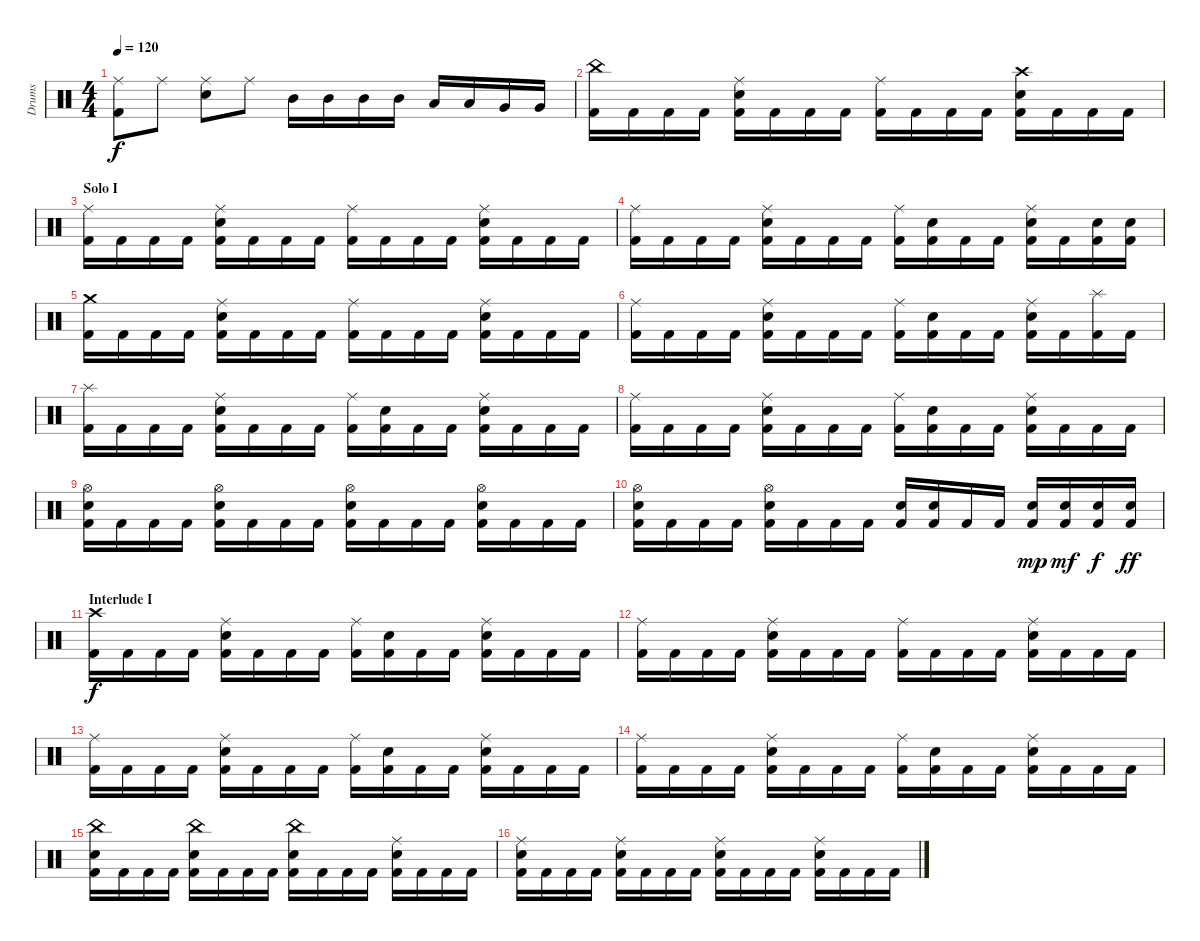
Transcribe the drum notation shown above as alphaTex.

\track ("Drums" "Drums") {instrument percussion}
\staff {score}
\articulation defaults
\ts (4 4)
\tempo 120
\clef neutral
\ks c
("Ride (middle)" "Kick (hit) 2").8{dy f} "Ride (middle)".8 ("Ride (middle)" "Snare (hit) 2").8 "Ride (middle)".8 "Mid Tom (hit)".16 "Mid Tom (hit)".16 "Mid Tom (hit)".16 "Mid Tom (hit)".16 "Low Tom (hit)".16 "Low Tom (hit)".16 "Very Low Tom (hit)".16 "Very Low Tom (hit)".16 |
("China (hit)" "Kick (hit) 2").16 "Kick (hit) 2".16 "Kick (hit) 2".16 "Kick (hit) 2".16 ("Ride (middle)" "Snare (hit) 2" "Kick (hit) 2").16 "Kick (hit) 2".16 "Kick (hit) 2".16 "Kick (hit) 2".16 ("Ride (middle)" "Kick (hit) 2").16 "Kick (hit) 2".16 "Kick (hit) 2".16 "Kick (hit) 2".16 ("Crash high (hit)" "Snare (hit) 2" "Kick (hit) 2").16 "Kick (hit) 2".16 "Kick (hit) 2".16 "Kick (hit) 2".16 |
\section ("" "Solo I")
("Ride (middle)" "Kick (hit) 2").16 "Kick (hit) 2".16 "Kick (hit) 2".16 "Kick (hit) 2".16 ("Ride (middle)" "Snare (hit) 2" "Kick (hit) 2").16 "Kick (hit) 2".16 "Kick (hit) 2".16 "Kick (hit) 2".16 ("Ride (middle)" "Kick (hit) 2").16 "Kick (hit) 2".16 "Kick (hit) 2".16 "Kick (hit) 2".16 ("Ride (middle)" "Snare (hit) 2" "Kick (hit) 2").16 "Kick (hit) 2".16 "Kick (hit) 2".16 "Kick (hit) 2".16 |
("Ride (middle)" "Kick (hit) 2").16 "Kick (hit) 2".16 "Kick (hit) 2".16 "Kick (hit) 2".16 ("Ride (middle)" "Snare (hit) 2" "Kick (hit) 2").16 "Kick (hit) 2".16 "Kick (hit) 2".16 "Kick (hit) 2".16 ("Ride (middle)" "Kick (hit) 2").16 ("Snare (hit) 2" "Kick (hit) 2").16 "Kick (hit) 2".16 "Kick (hit) 2".16 ("Ride (middle)" "Snare (hit) 2" "Kick (hit) 2").16 "Kick (hit) 2".16 ("Snare (hit) 2" "Kick (hit) 2").16 ("Snare (hit) 2" "Kick (hit) 2").16 |
("Crash medium (hit)" "Kick (hit) 2").16 "Kick (hit) 2".16 "Kick (hit) 2".16 "Kick (hit) 2".16 ("Ride (middle)" "Snare (hit) 2" "Kick (hit) 2").16 "Kick (hit) 2".16 "Kick (hit) 2".16 "Kick (hit) 2".16 ("Ride (middle)" "Kick (hit) 2").16 "Kick (hit) 2".16 "Kick (hit) 2".16 "Kick (hit) 2".16 ("Ride (middle)" "Snare (hit) 2" "Kick (hit) 2").16 "Kick (hit) 2".16 "Kick (hit) 2".16 "Kick (hit) 2".16 |
("Ride (middle)" "Kick (hit) 2").16 "Kick (hit) 2".16 "Kick (hit) 2".16 "Kick (hit) 2".16 ("Ride (middle)" "Snare (hit) 2" "Kick (hit) 2").16 "Kick (hit) 2".16 "Kick (hit) 2".16 "Kick (hit) 2".16 ("Ride (middle)" "Kick (hit) 2").16 ("Snare (hit) 2" "Kick (hit) 2").16 "Kick (hit) 2".16 "Kick (hit) 2".16 ("Ride (middle)" "Snare (hit) 2" "Kick (hit) 2").16 "Kick (hit) 2".16 ("Splash (hit)" "Kick (hit) 2").16 "Kick (hit) 2".16 |
("Splash (hit)" "Kick (hit) 2").16 "Kick (hit) 2".16 "Kick (hit) 2".16 "Kick (hit) 2".16 ("Ride (middle)" "Snare (hit) 2" "Kick (hit) 2").16 "Kick (hit) 2".16 "Kick (hit) 2".16 "Kick (hit) 2".16 ("Ride (middle)" "Kick (hit) 2").16 ("Snare (hit) 2" "Kick (hit) 2").16 "Kick (hit) 2".16 "Kick (hit) 2".16 ("Ride (middle)" "Snare (hit) 2" "Kick (hit) 2").16 "Kick (hit) 2".16 "Kick (hit) 2".16 "Kick (hit) 2".16 |
("Ride (middle)" "Kick (hit) 2").16 "Kick (hit) 2".16 "Kick (hit) 2".16 "Kick (hit) 2".16 ("Ride (middle)" "Snare (hit) 2" "Kick (hit) 2").16 "Kick (hit) 2".16 "Kick (hit) 2".16 "Kick (hit) 2".16 ("Ride (middle)" "Kick (hit) 2").16 ("Snare (hit) 2" "Kick (hit) 2").16 "Kick (hit) 2".16 "Kick (hit) 2".16 ("Ride (middle)" "Snare (hit) 2" "Kick (hit) 2").16 "Kick (hit) 2".16 "Kick (hit) 2".16 "Kick (hit) 2".16 |
("Hi-Hat (open)" "Snare (hit) 2" "Kick (hit) 2").16 "Kick (hit) 2".16 "Kick (hit) 2".16 "Kick (hit) 2".16 ("Hi-Hat (open)" "Snare (hit) 2" "Kick (hit) 2").16 "Kick (hit) 2".16 "Kick (hit) 2".16 "Kick (hit) 2".16 ("Hi-Hat (open)" "Snare (hit) 2" "Kick (hit) 2").16 "Kick (hit) 2".16 "Kick (hit) 2".16 "Kick (hit) 2".16 ("Hi-Hat (open)" "Snare (hit) 2" "Kick (hit) 2").16 "Kick (hit) 2".16 "Kick (hit) 2".16 "Kick (hit) 2".16 |
("Hi-Hat (open)" "Snare (hit) 2" "Kick (hit) 2").16 "Kick (hit) 2".16 "Kick (hit) 2".16 "Kick (hit) 2".16 ("Hi-Hat (open)" "Snare (hit) 2" "Kick (hit) 2").16 "Kick (hit) 2".16 "Kick (hit) 2".16 "Kick (hit) 2".16 ("Snare (hit) 2" "Kick (hit) 2").16 ("Snare (hit) 2" "Kick (hit) 2").16 "Kick (hit) 2".16 "Kick (hit) 2".16 ("Snare (hit) 2" "Kick (hit) 2").16{dy mp} ("Snare (hit) 2" "Kick (hit) 2").16{dy mf} ("Snare (hit) 2" "Kick (hit) 2").16{dy f} ("Snare (hit) 2" "Kick (hit) 2").16{dy ff} |
\section ("" "Interlude I")
("Crash high (hit)" "Kick (hit) 2").16{dy f} "Kick (hit) 2".16 "Kick (hit) 2".16 "Kick (hit) 2".16 ("Ride (middle)" "Snare (hit) 2" "Kick (hit) 2").16 "Kick (hit) 2".16 "Kick (hit) 2".16 "Kick (hit) 2".16 ("Ride (middle)" "Kick (hit) 2").16 ("Snare (hit) 2" "Kick (hit) 2").16 "Kick (hit) 2".16 "Kick (hit) 2".16 ("Ride (middle)" "Snare (hit) 2" "Kick (hit) 2").16 "Kick (hit) 2".16 "Kick (hit) 2".16 "Kick (hit) 2".16 |
("Ride (middle)" "Kick (hit) 2").16 "Kick (hit) 2".16 "Kick (hit) 2".16 "Kick (hit) 2".16 ("Ride (middle)" "Snare (hit) 2" "Kick (hit) 2").16 "Kick (hit) 2".16 "Kick (hit) 2".16 "Kick (hit) 2".16 ("Ride (middle)" "Kick (hit) 2").16 "Kick (hit) 2".16 "Kick (hit) 2".16 "Kick (hit) 2".16 ("Ride (middle)" "Snare (hit) 2" "Kick (hit) 2").16 "Kick (hit) 2".16 "Kick (hit) 2".16 "Kick (hit) 2".16 |
("Ride (middle)" "Kick (hit) 2").16 "Kick (hit) 2".16 "Kick (hit) 2".16 "Kick (hit) 2".16 ("Ride (middle)" "Snare (hit) 2" "Kick (hit) 2").16 "Kick (hit) 2".16 "Kick (hit) 2".16 "Kick (hit) 2".16 ("Ride (middle)" "Kick (hit) 2").16 ("Snare (hit) 2" "Kick (hit) 2").16 "Kick (hit) 2".16 "Kick (hit) 2".16 ("Ride (middle)" "Snare (hit) 2" "Kick (hit) 2").16 "Kick (hit) 2".16 "Kick (hit) 2".16 "Kick (hit) 2".16 |
("Ride (middle)" "Kick (hit) 2").16 "Kick (hit) 2".16 "Kick (hit) 2".16 "Kick (hit) 2".16 ("Ride (middle)" "Snare (hit) 2" "Kick (hit) 2").16 "Kick (hit) 2".16 "Kick (hit) 2".16 "Kick (hit) 2".16 ("Ride (middle)" "Kick (hit) 2").16 ("Snare (hit) 2" "Kick (hit) 2").16 "Kick (hit) 2".16 "Kick (hit) 2".16 ("Ride (middle)" "Snare (hit) 2" "Kick (hit) 2").16 "Kick (hit) 2".16 "Kick (hit) 2".16 "Kick (hit) 2".16 |
("China (hit)" "Snare (hit) 2" "Kick (hit) 2").16 "Kick (hit) 2".16 "Kick (hit) 2".16 "Kick (hit) 2".16 ("China (hit)" "Snare (hit) 2" "Kick (hit) 2").16 "Kick (hit) 2".16 "Kick (hit) 2".16 "Kick (hit) 2".16 ("China (hit)" "Snare (hit) 2" "Kick (hit) 2").16 "Kick (hit) 2".16 "Kick (hit) 2".16 "Kick (hit) 2".16 ("Ride (middle)" "Snare (hit) 2" "Kick (hit) 2").16 "Kick (hit) 2".16 "Kick (hit) 2".16 "Kick (hit) 2".16 |
("Ride (middle)" "Snare (hit) 2" "Kick (hit) 2").16 "Kick (hit) 2".16 "Kick (hit) 2".16 "Kick (hit) 2".16 ("Ride (middle)" "Snare (hit) 2" "Kick (hit) 2").16 "Kick (hit) 2".16 "Kick (hit) 2".16 "Kick (hit) 2".16 ("Ride (middle)" "Snare (hit) 2" "Kick (hit) 2").16 "Kick (hit) 2".16 "Kick (hit) 2".16 "Kick (hit) 2".16 ("Ride (middle)" "Snare (hit) 2" "Kick (hit) 2").16 "Kick (hit) 2".16 "Kick (hit) 2".16 "Kick (hit) 2".16
